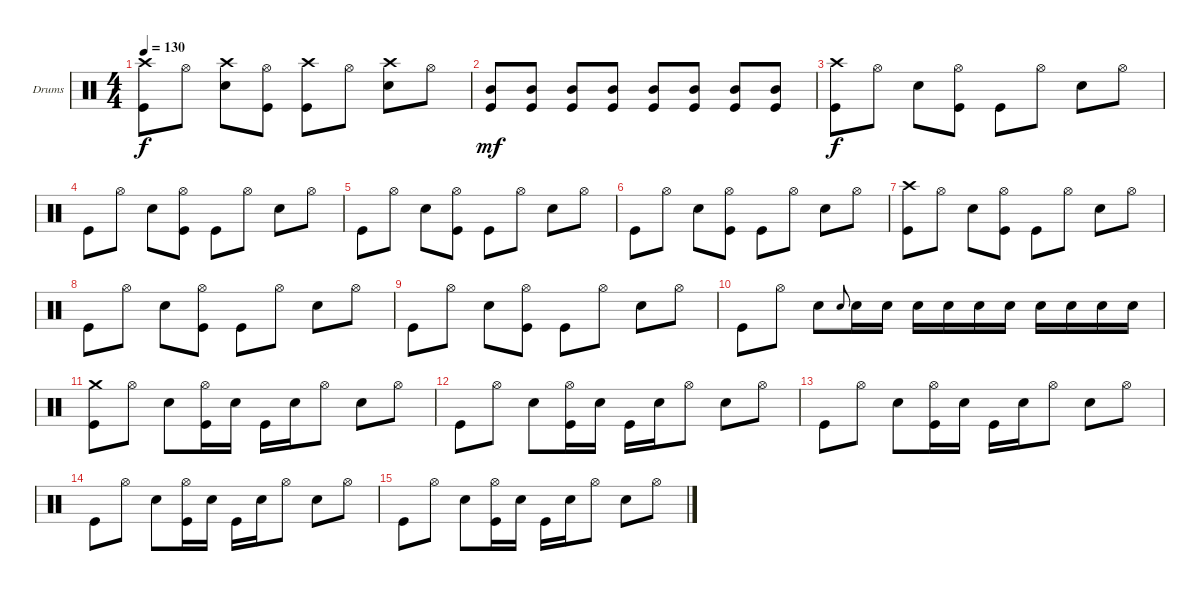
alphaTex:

\defaultSystemsLayout 4
\bracketExtendMode groupsimilarinstruments
\firstSystemTrackNameOrientation horizontal
\otherSystemsTrackNameOrientation horizontal
\track ("Drumkit" "Drums") {instrument percussion}
\staff {score}
\articulation defaults
\ts (4 4)
\tempo 130
\clef neutral
\ks c
("Kick (hit)" "Crash high (hit)").8{dy f} "Hi-Hat (open)".8 ("Snare (hit) 2" "Crash high (hit)").8 ("Kick (hit)" "Hi-Hat (open)").8 ("Kick (hit)" "Crash high (hit)").8 "Hi-Hat (open)".8 ("Snare (hit) 2" "Crash high (hit)").8 "Hi-Hat (open)".8 |
("Kick (hit)" "Mid Tom (hit)").8{dy mf} ("Kick (hit)" "Mid Tom (hit)").8 ("Kick (hit)" "Mid Tom (hit)").8 ("Kick (hit)" "Mid Tom (hit)").8 ("Kick (hit)" "Mid Tom (hit)").8 ("Kick (hit)" "Mid Tom (hit)").8 ("Kick (hit)" "Mid Tom (hit)").8 ("Kick (hit)" "Mid Tom (hit)").8 |
("Kick (hit)" "Crash high (hit)").8{dy f} "Hi-Hat (open)".8 "Snare (hit) 2".8 ("Kick (hit)" "Hi-Hat (open)").8 "Kick (hit)".8 "Hi-Hat (open)".8 "Snare (hit) 2".8 "Hi-Hat (open)".8 |
"Kick (hit)".8 "Hi-Hat (open)".8 "Snare (hit) 2".8 ("Kick (hit)" "Hi-Hat (open)").8 "Kick (hit)".8 "Hi-Hat (open)".8 "Snare (hit) 2".8 "Hi-Hat (open)".8 |
"Kick (hit)".8 "Hi-Hat (open)".8 "Snare (hit) 2".8 ("Kick (hit)" "Hi-Hat (open)").8 "Kick (hit)".8 "Hi-Hat (open)".8 "Snare (hit) 2".8 "Hi-Hat (open)".8 |
"Kick (hit)".8 "Hi-Hat (open)".8 "Snare (hit) 2".8 ("Kick (hit)" "Hi-Hat (open)").8 "Kick (hit)".8 "Hi-Hat (open)".8 "Snare (hit) 2".8 "Hi-Hat (open)".8 |
("Kick (hit)" "Crash high (hit)").8 "Hi-Hat (open)".8 "Snare (hit) 2".8 ("Kick (hit)" "Hi-Hat (open)").8 "Kick (hit)".8 "Hi-Hat (open)".8 "Snare (hit) 2".8 "Hi-Hat (open)".8 |
"Kick (hit)".8 "Hi-Hat (open)".8 "Snare (hit) 2".8 ("Kick (hit)" "Hi-Hat (open)").8 "Kick (hit)".8 "Hi-Hat (open)".8 "Snare (hit) 2".8 "Hi-Hat (open)".8 |
"Kick (hit)".8 "Hi-Hat (open)".8 "Snare (hit) 2".8 ("Kick (hit)" "Hi-Hat (open)").8 "Kick (hit)".8 "Hi-Hat (open)".8 "Snare (hit) 2".8 "Hi-Hat (open)".8 |
"Kick (hit)".8 "Hi-Hat (open)".8 "Snare (hit) 2".8 "Snare (hit) 2".8{gr onbeat} "Snare (hit) 2".16 "Snare (hit) 2".16 "Snare (hit) 2".16 "Snare (hit) 2".16 "Snare (hit) 2".16 "Snare (hit) 2".16 "Snare (hit) 2".16 "Snare (hit) 2".16 "Snare (hit) 2".16 "Snare (hit) 2".16 |
("Kick (hit)" "Crash medium (hit)").8 "Hi-Hat (open)".8 "Snare (hit) 2".8 ("Hi-Hat (open)" "Kick (hit)").16 "Snare (hit) 2".16 "Kick (hit)".16 "Snare (hit) 2".16 "Hi-Hat (open)".8 "Snare (hit) 2".8 "Hi-Hat (open)".8 |
"Kick (hit)".8 "Hi-Hat (open)".8 "Snare (hit) 2".8 ("Hi-Hat (open)" "Kick (hit)").16 "Snare (hit) 2".16 "Kick (hit)".16 "Snare (hit) 2".16 "Hi-Hat (open)".8 "Snare (hit) 2".8 "Hi-Hat (open)".8 |
"Kick (hit)".8 "Hi-Hat (open)".8 "Snare (hit) 2".8 ("Hi-Hat (open)" "Kick (hit)").16 "Snare (hit) 2".16 "Kick (hit)".16 "Snare (hit) 2".16 "Hi-Hat (open)".8 "Snare (hit) 2".8 "Hi-Hat (open)".8 |
"Kick (hit)".8 "Hi-Hat (open)".8 "Snare (hit) 2".8 ("Hi-Hat (open)" "Kick (hit)").16 "Snare (hit) 2".16 "Kick (hit)".16 "Snare (hit) 2".16 "Hi-Hat (open)".8 "Snare (hit) 2".8 "Hi-Hat (open)".8 |
"Kick (hit)".8 "Hi-Hat (open)".8 "Snare (hit) 2".8 ("Hi-Hat (open)" "Kick (hit)").16 "Snare (hit) 2".16 "Kick (hit)".16 "Snare (hit) 2".16 "Hi-Hat (open)".8 "Snare (hit) 2".8 "Hi-Hat (open)".8
